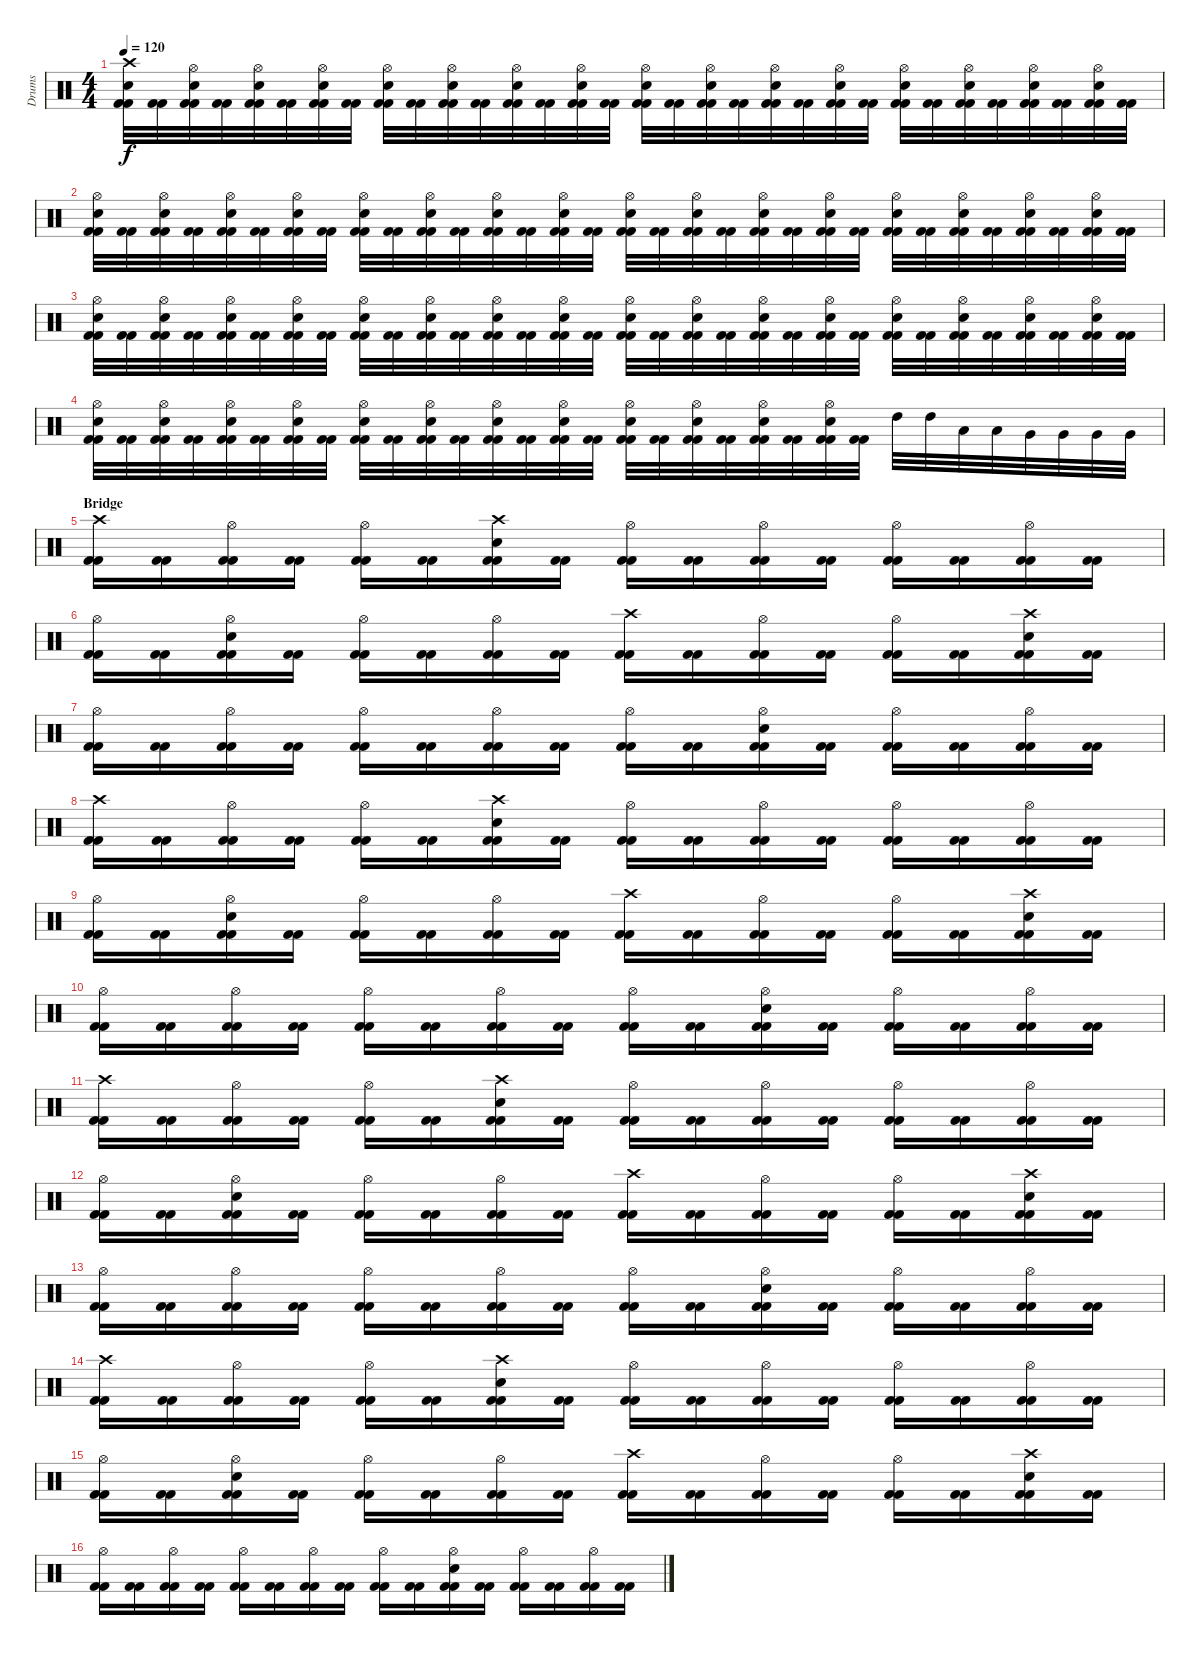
\track ("Drums" "Drums") {instrument percussion}
\staff {score}
\articulation defaults
\ts (4 4)
\tempo 120
\clef neutral
\ks c
("Kick (hit) 2" "Kick (hit) 2" "Electric Snare (hit)" "Crash high (hit)").32{dy f} ("Kick (hit) 2" "Kick (hit) 2").32 ("Kick (hit) 2" "Kick (hit) 2" "Electric Snare (hit)" "Hi-Hat (open)").32 ("Kick (hit) 2" "Kick (hit) 2").32 ("Kick (hit) 2" "Kick (hit) 2" "Electric Snare (hit)" "Hi-Hat (open)").32 ("Kick (hit) 2" "Kick (hit) 2").32 ("Kick (hit) 2" "Kick (hit) 2" "Electric Snare (hit)" "Hi-Hat (open)").32 ("Kick (hit) 2" "Kick (hit) 2").32 ("Kick (hit) 2" "Kick (hit) 2" "Electric Snare (hit)" "Hi-Hat (open)").32 ("Kick (hit) 2" "Kick (hit) 2").32 ("Kick (hit) 2" "Kick (hit) 2" "Electric Snare (hit)" "Hi-Hat (open)").32 ("Kick (hit) 2" "Kick (hit) 2").32 ("Kick (hit) 2" "Kick (hit) 2" "Electric Snare (hit)" "Hi-Hat (open)").32 ("Kick (hit) 2" "Kick (hit) 2").32 ("Kick (hit) 2" "Kick (hit) 2" "Electric Snare (hit)" "Hi-Hat (open)").32 ("Kick (hit) 2" "Kick (hit) 2").32 ("Kick (hit) 2" "Kick (hit) 2" "Electric Snare (hit)" "Hi-Hat (open)").32 ("Kick (hit) 2" "Kick (hit) 2").32 ("Kick (hit) 2" "Kick (hit) 2" "Electric Snare (hit)" "Hi-Hat (open)").32 ("Kick (hit) 2" "Kick (hit) 2").32 ("Kick (hit) 2" "Kick (hit) 2" "Electric Snare (hit)" "Hi-Hat (open)").32 ("Kick (hit) 2" "Kick (hit) 2").32 ("Kick (hit) 2" "Kick (hit) 2" "Electric Snare (hit)" "Hi-Hat (open)").32 ("Kick (hit) 2" "Kick (hit) 2").32 ("Kick (hit) 2" "Kick (hit) 2" "Electric Snare (hit)" "Hi-Hat (open)").32 ("Kick (hit) 2" "Kick (hit) 2").32 ("Kick (hit) 2" "Kick (hit) 2" "Electric Snare (hit)" "Hi-Hat (open)").32 ("Kick (hit) 2" "Kick (hit) 2").32 ("Kick (hit) 2" "Kick (hit) 2" "Electric Snare (hit)" "Hi-Hat (open)").32 ("Kick (hit) 2" "Kick (hit) 2").32 ("Kick (hit) 2" "Kick (hit) 2" "Electric Snare (hit)" "Hi-Hat (open)").32 ("Kick (hit) 2" "Kick (hit) 2").32 |
("Kick (hit) 2" "Kick (hit) 2" "Electric Snare (hit)" "Hi-Hat (open)").32 ("Kick (hit) 2" "Kick (hit) 2").32 ("Kick (hit) 2" "Kick (hit) 2" "Electric Snare (hit)" "Hi-Hat (open)").32 ("Kick (hit) 2" "Kick (hit) 2").32 ("Kick (hit) 2" "Kick (hit) 2" "Electric Snare (hit)" "Hi-Hat (open)").32 ("Kick (hit) 2" "Kick (hit) 2").32 ("Kick (hit) 2" "Kick (hit) 2" "Electric Snare (hit)" "Hi-Hat (open)").32 ("Kick (hit) 2" "Kick (hit) 2").32 ("Kick (hit) 2" "Kick (hit) 2" "Electric Snare (hit)" "Hi-Hat (open)").32 ("Kick (hit) 2" "Kick (hit) 2").32 ("Kick (hit) 2" "Kick (hit) 2" "Electric Snare (hit)" "Hi-Hat (open)").32 ("Kick (hit) 2" "Kick (hit) 2").32 ("Kick (hit) 2" "Kick (hit) 2" "Electric Snare (hit)" "Hi-Hat (open)").32 ("Kick (hit) 2" "Kick (hit) 2").32 ("Kick (hit) 2" "Kick (hit) 2" "Electric Snare (hit)" "Hi-Hat (open)").32 ("Kick (hit) 2" "Kick (hit) 2").32 ("Kick (hit) 2" "Kick (hit) 2" "Electric Snare (hit)" "Hi-Hat (open)").32 ("Kick (hit) 2" "Kick (hit) 2").32 ("Kick (hit) 2" "Kick (hit) 2" "Electric Snare (hit)" "Hi-Hat (open)").32 ("Kick (hit) 2" "Kick (hit) 2").32 ("Kick (hit) 2" "Kick (hit) 2" "Electric Snare (hit)" "Hi-Hat (open)").32 ("Kick (hit) 2" "Kick (hit) 2").32 ("Kick (hit) 2" "Kick (hit) 2" "Electric Snare (hit)" "Hi-Hat (open)").32 ("Kick (hit) 2" "Kick (hit) 2").32 ("Kick (hit) 2" "Kick (hit) 2" "Electric Snare (hit)" "Hi-Hat (open)").32 ("Kick (hit) 2" "Kick (hit) 2").32 ("Kick (hit) 2" "Kick (hit) 2" "Electric Snare (hit)" "Hi-Hat (open)").32 ("Kick (hit) 2" "Kick (hit) 2").32 ("Kick (hit) 2" "Kick (hit) 2" "Electric Snare (hit)" "Hi-Hat (open)").32 ("Kick (hit) 2" "Kick (hit) 2").32 ("Kick (hit) 2" "Kick (hit) 2" "Electric Snare (hit)" "Hi-Hat (open)").32 ("Kick (hit) 2" "Kick (hit) 2").32 |
("Kick (hit) 2" "Kick (hit) 2" "Electric Snare (hit)" "Hi-Hat (open)").32 ("Kick (hit) 2" "Kick (hit) 2").32 ("Kick (hit) 2" "Kick (hit) 2" "Electric Snare (hit)" "Hi-Hat (open)").32 ("Kick (hit) 2" "Kick (hit) 2").32 ("Kick (hit) 2" "Kick (hit) 2" "Electric Snare (hit)" "Hi-Hat (open)").32 ("Kick (hit) 2" "Kick (hit) 2").32 ("Kick (hit) 2" "Kick (hit) 2" "Electric Snare (hit)" "Hi-Hat (open)").32 ("Kick (hit) 2" "Kick (hit) 2").32 ("Kick (hit) 2" "Kick (hit) 2" "Electric Snare (hit)" "Hi-Hat (open)").32 ("Kick (hit) 2" "Kick (hit) 2").32 ("Kick (hit) 2" "Kick (hit) 2" "Electric Snare (hit)" "Hi-Hat (open)").32 ("Kick (hit) 2" "Kick (hit) 2").32 ("Kick (hit) 2" "Kick (hit) 2" "Electric Snare (hit)" "Hi-Hat (open)").32 ("Kick (hit) 2" "Kick (hit) 2").32 ("Kick (hit) 2" "Kick (hit) 2" "Electric Snare (hit)" "Hi-Hat (open)").32 ("Kick (hit) 2" "Kick (hit) 2").32 ("Kick (hit) 2" "Kick (hit) 2" "Electric Snare (hit)" "Hi-Hat (open)").32 ("Kick (hit) 2" "Kick (hit) 2").32 ("Kick (hit) 2" "Kick (hit) 2" "Electric Snare (hit)" "Hi-Hat (open)").32 ("Kick (hit) 2" "Kick (hit) 2").32 ("Kick (hit) 2" "Kick (hit) 2" "Electric Snare (hit)" "Hi-Hat (open)").32 ("Kick (hit) 2" "Kick (hit) 2").32 ("Kick (hit) 2" "Kick (hit) 2" "Electric Snare (hit)" "Hi-Hat (open)").32 ("Kick (hit) 2" "Kick (hit) 2").32 ("Kick (hit) 2" "Kick (hit) 2" "Electric Snare (hit)" "Hi-Hat (open)").32 ("Kick (hit) 2" "Kick (hit) 2").32 ("Kick (hit) 2" "Kick (hit) 2" "Electric Snare (hit)" "Hi-Hat (open)").32 ("Kick (hit) 2" "Kick (hit) 2").32 ("Kick (hit) 2" "Kick (hit) 2" "Electric Snare (hit)" "Hi-Hat (open)").32 ("Kick (hit) 2" "Kick (hit) 2").32 ("Kick (hit) 2" "Kick (hit) 2" "Electric Snare (hit)" "Hi-Hat (open)").32 ("Kick (hit) 2" "Kick (hit) 2").32 |
("Kick (hit) 2" "Kick (hit) 2" "Electric Snare (hit)" "Hi-Hat (open)").32 ("Kick (hit) 2" "Kick (hit) 2").32 ("Kick (hit) 2" "Kick (hit) 2" "Electric Snare (hit)" "Hi-Hat (open)").32 ("Kick (hit) 2" "Kick (hit) 2").32 ("Kick (hit) 2" "Kick (hit) 2" "Electric Snare (hit)" "Hi-Hat (open)").32 ("Kick (hit) 2" "Kick (hit) 2").32 ("Kick (hit) 2" "Kick (hit) 2" "Electric Snare (hit)" "Hi-Hat (open)").32 ("Kick (hit) 2" "Kick (hit) 2").32 ("Kick (hit) 2" "Kick (hit) 2" "Electric Snare (hit)" "Hi-Hat (open)").32 ("Kick (hit) 2" "Kick (hit) 2").32 ("Kick (hit) 2" "Kick (hit) 2" "Electric Snare (hit)" "Hi-Hat (open)").32 ("Kick (hit) 2" "Kick (hit) 2").32 ("Kick (hit) 2" "Kick (hit) 2" "Electric Snare (hit)" "Hi-Hat (open)").32 ("Kick (hit) 2" "Kick (hit) 2").32 ("Kick (hit) 2" "Kick (hit) 2" "Electric Snare (hit)" "Hi-Hat (open)").32 ("Kick (hit) 2" "Kick (hit) 2").32 ("Kick (hit) 2" "Kick (hit) 2" "Electric Snare (hit)" "Hi-Hat (open)").32 ("Kick (hit) 2" "Kick (hit) 2").32 ("Kick (hit) 2" "Kick (hit) 2" "Electric Snare (hit)" "Hi-Hat (open)").32 ("Kick (hit) 2" "Kick (hit) 2").32 ("Kick (hit) 2" "Kick (hit) 2" "Electric Snare (hit)" "Hi-Hat (open)").32 ("Kick (hit) 2" "Kick (hit) 2").32 ("Kick (hit) 2" "Kick (hit) 2" "Electric Snare (hit)" "Hi-Hat (open)").32 ("Kick (hit) 2" "Kick (hit) 2").32 "High Tom (hit)".32 "High Tom (hit)".32 "Low Tom (hit)".32 "Low Tom (hit)".32 "Very Low Tom (hit)".32 "Very Low Tom (hit)".32 "Very Low Tom (hit)".32 "Very Low Tom (hit)".32 |
\section ("" "Bridge")
("Kick (hit) 2" "Kick (hit) 2" "Crash high (hit)").16 ("Kick (hit) 2" "Kick (hit) 2").16 ("Kick (hit) 2" "Kick (hit) 2" "Hi-Hat (open)").16 ("Kick (hit) 2" "Kick (hit) 2").16 ("Kick (hit) 2" "Kick (hit) 2" "Hi-Hat (open)").16 ("Kick (hit) 2" "Kick (hit) 2").16 ("Kick (hit) 2" "Kick (hit) 2" "Electric Snare (hit)" "Crash high (hit)").16 ("Kick (hit) 2" "Kick (hit) 2").16 ("Kick (hit) 2" "Kick (hit) 2" "Hi-Hat (open)").16 ("Kick (hit) 2" "Kick (hit) 2").16 ("Kick (hit) 2" "Kick (hit) 2" "Hi-Hat (open)").16 ("Kick (hit) 2" "Kick (hit) 2").16 ("Kick (hit) 2" "Kick (hit) 2" "Hi-Hat (open)").16 ("Kick (hit) 2" "Kick (hit) 2").16 ("Kick (hit) 2" "Kick (hit) 2" "Hi-Hat (open)").16 ("Kick (hit) 2" "Kick (hit) 2").16 |
("Kick (hit) 2" "Kick (hit) 2" "Hi-Hat (open)").16 ("Kick (hit) 2" "Kick (hit) 2").16 ("Kick (hit) 2" "Kick (hit) 2" "Electric Snare (hit)" "Hi-Hat (open)").16 ("Kick (hit) 2" "Kick (hit) 2").16 ("Kick (hit) 2" "Kick (hit) 2" "Hi-Hat (open)").16 ("Kick (hit) 2" "Kick (hit) 2").16 ("Kick (hit) 2" "Kick (hit) 2" "Hi-Hat (open)").16 ("Kick (hit) 2" "Kick (hit) 2").16 ("Kick (hit) 2" "Kick (hit) 2" "Crash high (hit)").16 ("Kick (hit) 2" "Kick (hit) 2").16 ("Kick (hit) 2" "Kick (hit) 2" "Hi-Hat (open)").16 ("Kick (hit) 2" "Kick (hit) 2").16 ("Kick (hit) 2" "Kick (hit) 2" "Hi-Hat (open)").16 ("Kick (hit) 2" "Kick (hit) 2").16 ("Kick (hit) 2" "Kick (hit) 2" "Electric Snare (hit)" "Crash high (hit)").16 ("Kick (hit) 2" "Kick (hit) 2").16 |
("Kick (hit) 2" "Kick (hit) 2" "Hi-Hat (open)").16 ("Kick (hit) 2" "Kick (hit) 2").16 ("Kick (hit) 2" "Kick (hit) 2" "Hi-Hat (open)").16 ("Kick (hit) 2" "Kick (hit) 2").16 ("Kick (hit) 2" "Kick (hit) 2" "Hi-Hat (open)").16 ("Kick (hit) 2" "Kick (hit) 2").16 ("Kick (hit) 2" "Kick (hit) 2" "Hi-Hat (open)").16 ("Kick (hit) 2" "Kick (hit) 2").16 ("Kick (hit) 2" "Kick (hit) 2" "Hi-Hat (open)").16 ("Kick (hit) 2" "Kick (hit) 2").16 ("Kick (hit) 2" "Kick (hit) 2" "Electric Snare (hit)" "Hi-Hat (open)").16 ("Kick (hit) 2" "Kick (hit) 2").16 ("Kick (hit) 2" "Kick (hit) 2" "Hi-Hat (open)").16 ("Kick (hit) 2" "Kick (hit) 2").16 ("Kick (hit) 2" "Kick (hit) 2" "Hi-Hat (open)").16 ("Kick (hit) 2" "Kick (hit) 2").16 |
("Kick (hit) 2" "Kick (hit) 2" "Crash high (hit)").16 ("Kick (hit) 2" "Kick (hit) 2").16 ("Kick (hit) 2" "Kick (hit) 2" "Hi-Hat (open)").16 ("Kick (hit) 2" "Kick (hit) 2").16 ("Kick (hit) 2" "Kick (hit) 2" "Hi-Hat (open)").16 ("Kick (hit) 2" "Kick (hit) 2").16 ("Kick (hit) 2" "Kick (hit) 2" "Electric Snare (hit)" "Crash high (hit)").16 ("Kick (hit) 2" "Kick (hit) 2").16 ("Kick (hit) 2" "Kick (hit) 2" "Hi-Hat (open)").16 ("Kick (hit) 2" "Kick (hit) 2").16 ("Kick (hit) 2" "Kick (hit) 2" "Hi-Hat (open)").16 ("Kick (hit) 2" "Kick (hit) 2").16 ("Kick (hit) 2" "Kick (hit) 2" "Hi-Hat (open)").16 ("Kick (hit) 2" "Kick (hit) 2").16 ("Kick (hit) 2" "Kick (hit) 2" "Hi-Hat (open)").16 ("Kick (hit) 2" "Kick (hit) 2").16 |
("Kick (hit) 2" "Kick (hit) 2" "Hi-Hat (open)").16 ("Kick (hit) 2" "Kick (hit) 2").16 ("Kick (hit) 2" "Kick (hit) 2" "Electric Snare (hit)" "Hi-Hat (open)").16 ("Kick (hit) 2" "Kick (hit) 2").16 ("Kick (hit) 2" "Kick (hit) 2" "Hi-Hat (open)").16 ("Kick (hit) 2" "Kick (hit) 2").16 ("Kick (hit) 2" "Kick (hit) 2" "Hi-Hat (open)").16 ("Kick (hit) 2" "Kick (hit) 2").16 ("Kick (hit) 2" "Kick (hit) 2" "Crash high (hit)").16 ("Kick (hit) 2" "Kick (hit) 2").16 ("Kick (hit) 2" "Kick (hit) 2" "Hi-Hat (open)").16 ("Kick (hit) 2" "Kick (hit) 2").16 ("Kick (hit) 2" "Kick (hit) 2" "Hi-Hat (open)").16 ("Kick (hit) 2" "Kick (hit) 2").16 ("Kick (hit) 2" "Kick (hit) 2" "Electric Snare (hit)" "Crash high (hit)").16 ("Kick (hit) 2" "Kick (hit) 2").16 |
("Kick (hit) 2" "Kick (hit) 2" "Hi-Hat (open)").16 ("Kick (hit) 2" "Kick (hit) 2").16 ("Kick (hit) 2" "Kick (hit) 2" "Hi-Hat (open)").16 ("Kick (hit) 2" "Kick (hit) 2").16 ("Kick (hit) 2" "Kick (hit) 2" "Hi-Hat (open)").16 ("Kick (hit) 2" "Kick (hit) 2").16 ("Kick (hit) 2" "Kick (hit) 2" "Hi-Hat (open)").16 ("Kick (hit) 2" "Kick (hit) 2").16 ("Kick (hit) 2" "Kick (hit) 2" "Hi-Hat (open)").16 ("Kick (hit) 2" "Kick (hit) 2").16 ("Kick (hit) 2" "Kick (hit) 2" "Electric Snare (hit)" "Hi-Hat (open)").16 ("Kick (hit) 2" "Kick (hit) 2").16 ("Kick (hit) 2" "Kick (hit) 2" "Hi-Hat (open)").16 ("Kick (hit) 2" "Kick (hit) 2").16 ("Kick (hit) 2" "Kick (hit) 2" "Hi-Hat (open)").16 ("Kick (hit) 2" "Kick (hit) 2").16 |
("Kick (hit) 2" "Kick (hit) 2" "Crash high (hit)").16 ("Kick (hit) 2" "Kick (hit) 2").16 ("Kick (hit) 2" "Kick (hit) 2" "Hi-Hat (open)").16 ("Kick (hit) 2" "Kick (hit) 2").16 ("Kick (hit) 2" "Kick (hit) 2" "Hi-Hat (open)").16 ("Kick (hit) 2" "Kick (hit) 2").16 ("Kick (hit) 2" "Kick (hit) 2" "Electric Snare (hit)" "Crash high (hit)").16 ("Kick (hit) 2" "Kick (hit) 2").16 ("Kick (hit) 2" "Kick (hit) 2" "Hi-Hat (open)").16 ("Kick (hit) 2" "Kick (hit) 2").16 ("Kick (hit) 2" "Kick (hit) 2" "Hi-Hat (open)").16 ("Kick (hit) 2" "Kick (hit) 2").16 ("Kick (hit) 2" "Kick (hit) 2" "Hi-Hat (open)").16 ("Kick (hit) 2" "Kick (hit) 2").16 ("Kick (hit) 2" "Kick (hit) 2" "Hi-Hat (open)").16 ("Kick (hit) 2" "Kick (hit) 2").16 |
("Kick (hit) 2" "Kick (hit) 2" "Hi-Hat (open)").16 ("Kick (hit) 2" "Kick (hit) 2").16 ("Kick (hit) 2" "Kick (hit) 2" "Electric Snare (hit)" "Hi-Hat (open)").16 ("Kick (hit) 2" "Kick (hit) 2").16 ("Kick (hit) 2" "Kick (hit) 2" "Hi-Hat (open)").16 ("Kick (hit) 2" "Kick (hit) 2").16 ("Kick (hit) 2" "Kick (hit) 2" "Hi-Hat (open)").16 ("Kick (hit) 2" "Kick (hit) 2").16 ("Kick (hit) 2" "Kick (hit) 2" "Crash high (hit)").16 ("Kick (hit) 2" "Kick (hit) 2").16 ("Kick (hit) 2" "Kick (hit) 2" "Hi-Hat (open)").16 ("Kick (hit) 2" "Kick (hit) 2").16 ("Kick (hit) 2" "Kick (hit) 2" "Hi-Hat (open)").16 ("Kick (hit) 2" "Kick (hit) 2").16 ("Kick (hit) 2" "Kick (hit) 2" "Electric Snare (hit)" "Crash high (hit)").16 ("Kick (hit) 2" "Kick (hit) 2").16 |
("Kick (hit) 2" "Kick (hit) 2" "Hi-Hat (open)").16 ("Kick (hit) 2" "Kick (hit) 2").16 ("Kick (hit) 2" "Kick (hit) 2" "Hi-Hat (open)").16 ("Kick (hit) 2" "Kick (hit) 2").16 ("Kick (hit) 2" "Kick (hit) 2" "Hi-Hat (open)").16 ("Kick (hit) 2" "Kick (hit) 2").16 ("Kick (hit) 2" "Kick (hit) 2" "Hi-Hat (open)").16 ("Kick (hit) 2" "Kick (hit) 2").16 ("Kick (hit) 2" "Kick (hit) 2" "Hi-Hat (open)").16 ("Kick (hit) 2" "Kick (hit) 2").16 ("Kick (hit) 2" "Kick (hit) 2" "Electric Snare (hit)" "Hi-Hat (open)").16 ("Kick (hit) 2" "Kick (hit) 2").16 ("Kick (hit) 2" "Kick (hit) 2" "Hi-Hat (open)").16 ("Kick (hit) 2" "Kick (hit) 2").16 ("Kick (hit) 2" "Kick (hit) 2" "Hi-Hat (open)").16 ("Kick (hit) 2" "Kick (hit) 2").16 |
("Kick (hit) 2" "Kick (hit) 2" "Crash high (hit)").16 ("Kick (hit) 2" "Kick (hit) 2").16 ("Kick (hit) 2" "Kick (hit) 2" "Hi-Hat (open)").16 ("Kick (hit) 2" "Kick (hit) 2").16 ("Kick (hit) 2" "Kick (hit) 2" "Hi-Hat (open)").16 ("Kick (hit) 2" "Kick (hit) 2").16 ("Kick (hit) 2" "Kick (hit) 2" "Electric Snare (hit)" "Crash high (hit)").16 ("Kick (hit) 2" "Kick (hit) 2").16 ("Kick (hit) 2" "Kick (hit) 2" "Hi-Hat (open)").16 ("Kick (hit) 2" "Kick (hit) 2").16 ("Kick (hit) 2" "Kick (hit) 2" "Hi-Hat (open)").16 ("Kick (hit) 2" "Kick (hit) 2").16 ("Kick (hit) 2" "Kick (hit) 2" "Hi-Hat (open)").16 ("Kick (hit) 2" "Kick (hit) 2").16 ("Kick (hit) 2" "Kick (hit) 2" "Hi-Hat (open)").16 ("Kick (hit) 2" "Kick (hit) 2").16 |
("Kick (hit) 2" "Kick (hit) 2" "Hi-Hat (open)").16 ("Kick (hit) 2" "Kick (hit) 2").16 ("Kick (hit) 2" "Kick (hit) 2" "Electric Snare (hit)" "Hi-Hat (open)").16 ("Kick (hit) 2" "Kick (hit) 2").16 ("Kick (hit) 2" "Kick (hit) 2" "Hi-Hat (open)").16 ("Kick (hit) 2" "Kick (hit) 2").16 ("Kick (hit) 2" "Kick (hit) 2" "Hi-Hat (open)").16 ("Kick (hit) 2" "Kick (hit) 2").16 ("Kick (hit) 2" "Kick (hit) 2" "Crash high (hit)").16 ("Kick (hit) 2" "Kick (hit) 2").16 ("Kick (hit) 2" "Kick (hit) 2" "Hi-Hat (open)").16 ("Kick (hit) 2" "Kick (hit) 2").16 ("Kick (hit) 2" "Kick (hit) 2" "Hi-Hat (open)").16 ("Kick (hit) 2" "Kick (hit) 2").16 ("Kick (hit) 2" "Kick (hit) 2" "Electric Snare (hit)" "Crash high (hit)").16 ("Kick (hit) 2" "Kick (hit) 2").16 |
("Kick (hit) 2" "Kick (hit) 2" "Hi-Hat (open)").16 ("Kick (hit) 2" "Kick (hit) 2").16 ("Kick (hit) 2" "Kick (hit) 2" "Hi-Hat (open)").16 ("Kick (hit) 2" "Kick (hit) 2").16 ("Kick (hit) 2" "Kick (hit) 2" "Hi-Hat (open)").16 ("Kick (hit) 2" "Kick (hit) 2").16 ("Kick (hit) 2" "Kick (hit) 2" "Hi-Hat (open)").16 ("Kick (hit) 2" "Kick (hit) 2").16 ("Kick (hit) 2" "Kick (hit) 2" "Hi-Hat (open)").16 ("Kick (hit) 2" "Kick (hit) 2").16 ("Kick (hit) 2" "Kick (hit) 2" "Electric Snare (hit)" "Hi-Hat (open)").16 ("Kick (hit) 2" "Kick (hit) 2").16 ("Kick (hit) 2" "Kick (hit) 2" "Hi-Hat (open)").16 ("Kick (hit) 2" "Kick (hit) 2").16 ("Kick (hit) 2" "Kick (hit) 2" "Hi-Hat (open)").16 ("Kick (hit) 2" "Kick (hit) 2").16
